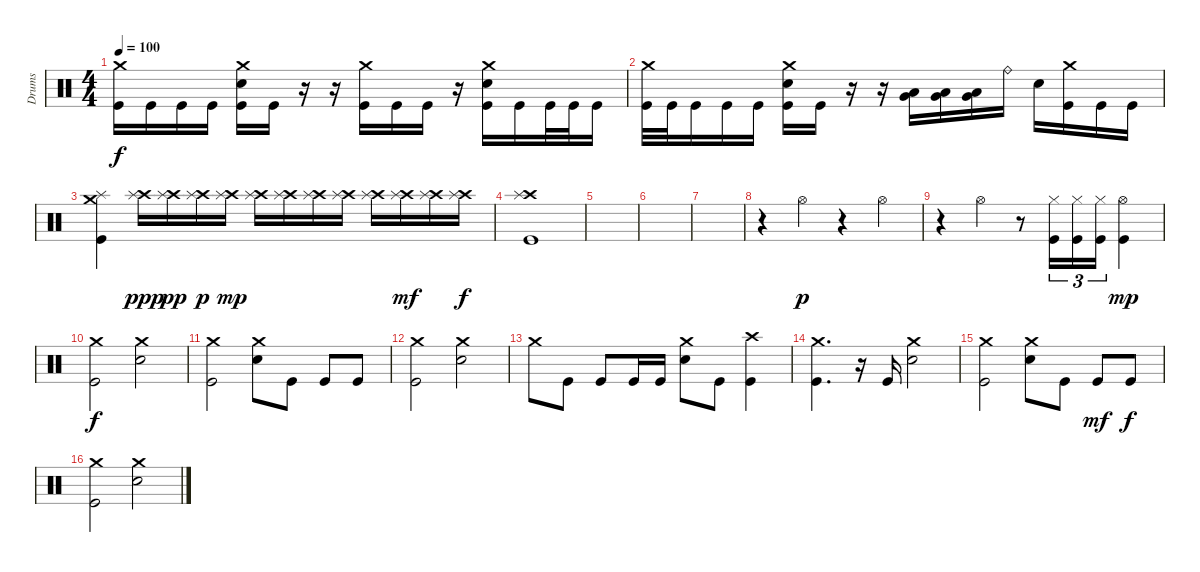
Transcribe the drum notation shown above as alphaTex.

\track ("Drums" "Drums") {instrument percussion}
\staff {score}
\articulation defaults
\ts (4 4)
\tempo 100
\clef neutral
\ks c
("Crash medium (hit)" "Kick (hit)").16{dy f} "Kick (hit)".16 "Kick (hit)".16 "Kick (hit)".16 ("Crash medium (hit)" "Electric Snare (hit)" "Kick (hit)").16 "Kick (hit)".16 r.16 r.16 ("Crash medium (hit)" "Kick (hit)").16 "Kick (hit)".16 "Kick (hit)".16 r.16 ("Crash medium (hit)" "Electric Snare (hit)" "Kick (hit)").16 "Kick (hit)".16 "Kick (hit)".32 "Kick (hit)".32 "Kick (hit)".16 |
("Crash medium (hit)" "Kick (hit)").32 "Kick (hit)".32 "Kick (hit)".16 "Kick (hit)".16 "Kick (hit)".16 ("Crash medium (hit)" "Electric Snare (hit)" "Kick (hit)").16 "Kick (hit)".16 r.16 r.16 ("Low Tom (hit)" "Very Low Tom (hit)").16 ("Low Tom (hit)" "Very Low Tom (hit)").16 ("Low Tom (hit)" "Very Low Tom (hit)").16 "Ride (bell)".16 "Electric Snare (hit)".16 ("Crash medium (hit)" "Kick (hit)").16 "Kick (hit)".16 "Kick (hit)".16 |
("Crash medium (hit)" "Splash (hit)" "Kick (hit)").4 ("Crash high (hit)" "Splash (hit)").16{dy ppp} ("Crash high (hit)" "Splash (hit)").16{dy pp} ("Crash high (hit)" "Splash (hit)").16{dy p} ("Crash high (hit)" "Splash (hit)").16{dy mp} ("Crash high (hit)" "Splash (hit)").16 ("Crash high (hit)" "Splash (hit)").16 ("Crash high (hit)" "Splash (hit)").16 ("Crash high (hit)" "Splash (hit)").16 ("Crash high (hit)" "Splash (hit)").16 ("Crash high (hit)" "Splash (hit)").16{dy mf} ("Crash high (hit)" "Splash (hit)").16 ("Crash high (hit)" "Splash (hit)").16{dy f} |
("Crash high (hit)" "Splash (hit)" "Kick (hit)").1 |
|
|
|
r.4 "Hi-Hat (open)".4{dy p} r.4 "Hi-Hat (open)".4 |
r.4 "Hi-Hat (open)".4 r.8 ("Hi-Hat (closed)" "Kick (hit)").16{tu (3 2)} ("Hi-Hat (closed)" "Kick (hit)").16{tu (3 2)} ("Hi-Hat (closed)" "Kick (hit)").16{tu (3 2)} ("Hi-Hat (open)" "Kick (hit)").4{dy mp} |
("Crash medium (hit)" "Kick (hit)").2{dy f} ("Crash medium (hit)" "Electric Snare (hit)").2 |
("Crash medium (hit)" "Kick (hit)").2 ("Crash medium (hit)" "Electric Snare (hit)").8 "Kick (hit)".8 "Kick (hit)".8 "Kick (hit)".8 |
("Crash medium (hit)" "Kick (hit)").2 ("Crash medium (hit)" "Electric Snare (hit)").2 |
"Crash medium (hit)".8 "Kick (hit)".8 "Kick (hit)".8 "Kick (hit)".16 "Kick (hit)".16 ("Crash medium (hit)" "Electric Snare (hit)").8 "Kick (hit)".8 ("Crash high (hit)" "Kick (hit)").4 |
("Crash medium (hit)" "Kick (hit)").4{d} r.16 "Kick (hit)".16 ("Crash medium (hit)" "Electric Snare (hit)").2 |
("Crash medium (hit)" "Kick (hit)").2 ("Crash medium (hit)" "Electric Snare (hit)").8 "Kick (hit)".8 "Kick (hit)".8{dy mf} "Kick (hit)".8{dy f} |
("Crash medium (hit)" "Kick (hit)").2 ("Crash medium (hit)" "Electric Snare (hit)").2
